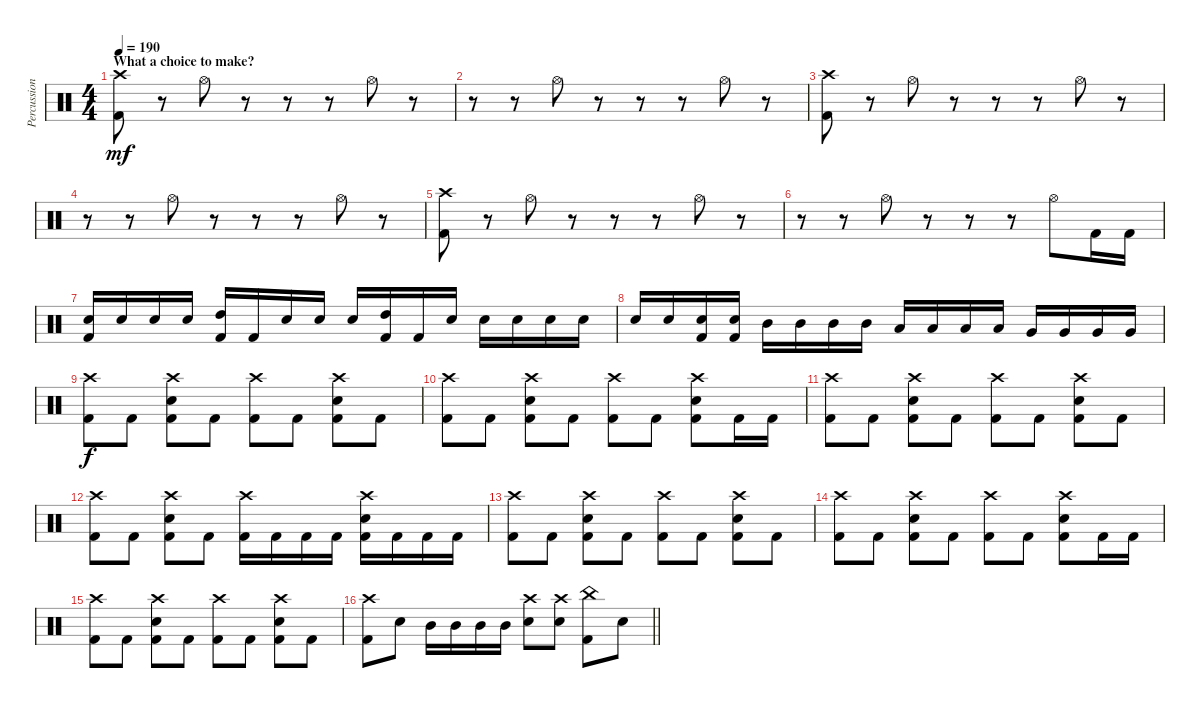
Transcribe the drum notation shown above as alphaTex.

\track ("Percussion" "Percussion") {instrument percussion}
\staff {score}
\articulation defaults
\ts (4 4)
\section ("" "What a choice to make?")
\tempo 190
\clef neutral
\ks c
("Crash high (hit)" "Kick (hit) 2").8{dy mf} r.8 "Hi-Hat (open)".8 r.8 r.8 r.8 "Hi-Hat (open)".8 r.8 |
r.8 r.8 "Hi-Hat (open)".8 r.8 r.8 r.8 "Hi-Hat (open)".8 r.8 |
("Crash high (hit)" "Kick (hit) 2").8 r.8 "Hi-Hat (open)".8 r.8 r.8 r.8 "Hi-Hat (open)".8 r.8 |
r.8 r.8 "Hi-Hat (open)".8 r.8 r.8 r.8 "Hi-Hat (open)".8 r.8 |
("Crash high (hit)" "Kick (hit) 2").8 r.8 "Hi-Hat (open)".8 r.8 r.8 r.8 "Hi-Hat (open)".8 r.8 |
r.8 r.8 "Hi-Hat (open)".8 r.8 r.8 r.8 "Hi-Hat (open)".8 "Kick (hit) 2".16 "Kick (hit) 2".16 |
("Snare (hit) 2" "Kick (hit) 2").16 "Snare (hit) 2".16 "Snare (hit) 2".16 "Snare (hit) 2".16 ("High Tom (hit)" "Kick (hit) 2").16 "Kick (hit) 2".16 "Snare (hit) 2".16 "Snare (hit) 2".16 "Snare (hit) 2".16 ("High Tom (hit)" "Kick (hit) 2").16 "Kick (hit) 2".16 "Snare (hit) 2".16 "Snare (hit) 2".16 "Snare (hit) 2".16 "Snare (hit) 2".16 "Snare (hit) 2".16 |
"Snare (hit) 2".16 "Snare (hit) 2".16 ("Snare (hit) 2" "Kick (hit) 2").16 ("Snare (hit) 2" "Kick (hit) 2").16 "Mid Tom (hit)".16 "Mid Tom (hit)".16 "Mid Tom (hit)".16 "Mid Tom (hit)".16 "Low Tom (hit)".16 "Low Tom (hit)".16 "Low Tom (hit)".16 "Low Tom (hit)".16 "Very Low Tom (hit)".16 "Very Low Tom (hit)".16 "Very Low Tom (hit)".16 "Very Low Tom (hit)".16 |
("Crash high (hit)" "Kick (hit) 2").8{dy f} "Kick (hit) 2".8 ("Crash high (hit)" "Snare (hit) 2" "Kick (hit) 2").8 "Kick (hit) 2".8 ("Crash high (hit)" "Kick (hit) 2").8 "Kick (hit) 2".8 ("Crash high (hit)" "Snare (hit) 2" "Kick (hit) 2").8 "Kick (hit) 2".8 |
("Crash high (hit)" "Kick (hit) 2").8 "Kick (hit) 2".8 ("Crash high (hit)" "Snare (hit) 2" "Kick (hit) 2").8 "Kick (hit) 2".8 ("Crash high (hit)" "Kick (hit) 2").8 "Kick (hit) 2".8 ("Crash high (hit)" "Snare (hit) 2" "Kick (hit) 2").8 "Kick (hit) 2".16 "Kick (hit) 2".16 |
("Crash high (hit)" "Kick (hit) 2").8 "Kick (hit) 2".8 ("Crash high (hit)" "Snare (hit) 2" "Kick (hit) 2").8 "Kick (hit) 2".8 ("Crash high (hit)" "Kick (hit) 2").8 "Kick (hit) 2".8 ("Crash high (hit)" "Snare (hit) 2" "Kick (hit) 2").8 "Kick (hit) 2".8 |
("Crash high (hit)" "Kick (hit) 2").8 "Kick (hit) 2".8 ("Crash high (hit)" "Snare (hit) 2" "Kick (hit) 2").8 "Kick (hit) 2".8 ("Crash high (hit)" "Kick (hit) 2").16 "Kick (hit) 2".16 "Kick (hit) 2".16 "Kick (hit) 2".16 ("Crash high (hit)" "Snare (hit) 2" "Kick (hit) 2").16 "Kick (hit) 2".16 "Kick (hit) 2".16 "Kick (hit) 2".16 |
("Crash high (hit)" "Kick (hit) 2").8 "Kick (hit) 2".8 ("Crash high (hit)" "Snare (hit) 2" "Kick (hit) 2").8 "Kick (hit) 2".8 ("Crash high (hit)" "Kick (hit) 2").8 "Kick (hit) 2".8 ("Crash high (hit)" "Snare (hit) 2" "Kick (hit) 2").8 "Kick (hit) 2".8 |
("Crash high (hit)" "Kick (hit) 2").8 "Kick (hit) 2".8 ("Crash high (hit)" "Snare (hit) 2" "Kick (hit) 2").8 "Kick (hit) 2".8 ("Crash high (hit)" "Kick (hit) 2").8 "Kick (hit) 2".8 ("Crash high (hit)" "Snare (hit) 2" "Kick (hit) 2").8 "Kick (hit) 2".16 "Kick (hit) 2".16 |
("Crash high (hit)" "Kick (hit) 2").8 "Kick (hit) 2".8 ("Crash high (hit)" "Snare (hit) 2" "Kick (hit) 2").8 "Kick (hit) 2".8 ("Crash high (hit)" "Kick (hit) 2").8 "Kick (hit) 2".8 ("Crash high (hit)" "Snare (hit) 2" "Kick (hit) 2").8 "Kick (hit) 2".8 |
\barLineRight lightlight
("Crash high (hit)" "Kick (hit) 2").8 "Snare (hit) 2".8 "Mid Tom (hit)".16 "Mid Tom (hit)".16 "Mid Tom (hit)".16 "Mid Tom (hit)".16 ("Crash high (hit)" "Snare (hit) 2").8 ("Crash high (hit)" "Snare (hit) 2").8 ("China (hit)" "Kick (hit) 2").8 "Snare (hit) 2".8
